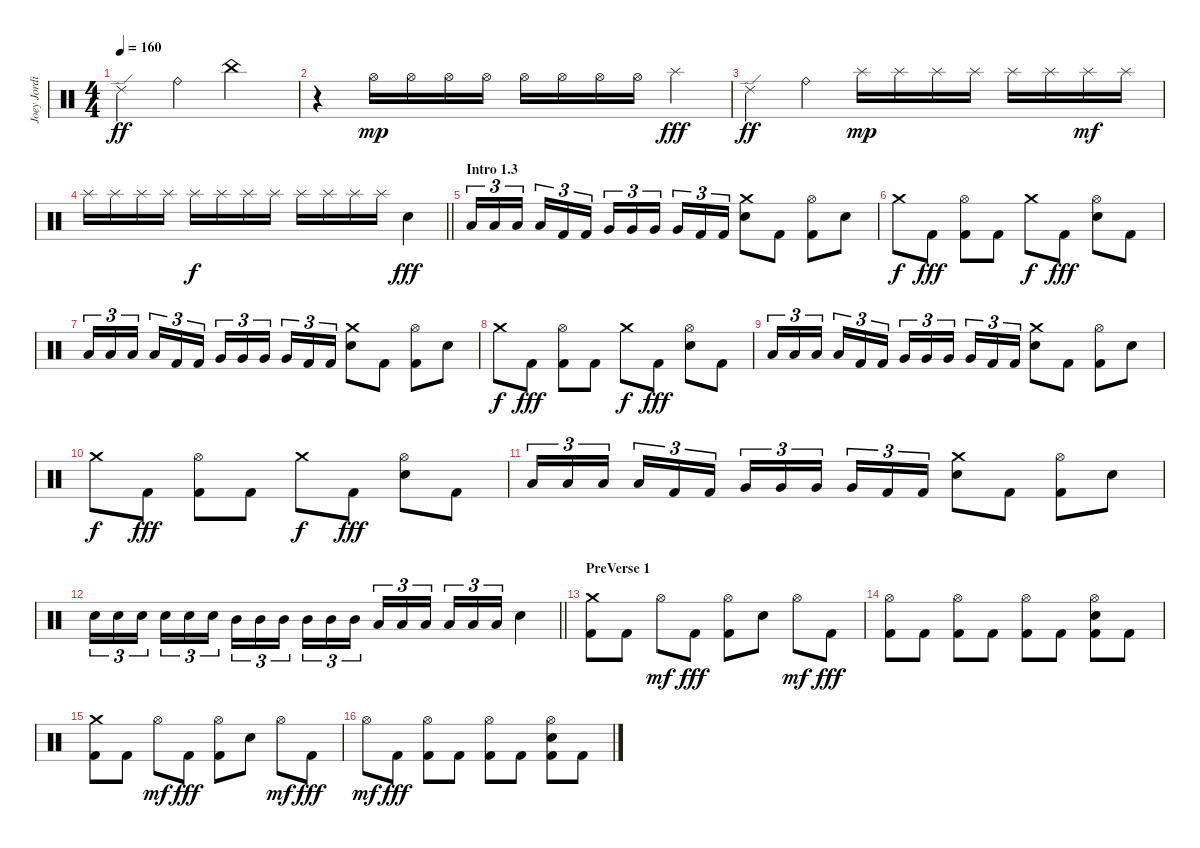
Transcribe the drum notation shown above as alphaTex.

\track ("Joey Jordison" "Joey Jordi") {instrument percussion}
\staff {score}
\articulation defaults
\ts (4 4)
\tempo 160
\clef neutral
\ks c "Ride (edge) 2".4{dy ff} "Ride (bell)".4 "China (hit)".2
|
r.4 "Hi-Hat (open)".16{dy mp} "Hi-Hat (open)".16 "Hi-Hat (open)".16 "Hi-Hat (open)".16 "Hi-Hat (open)".16 "Hi-Hat (open)".16 "Hi-Hat (open)".16 "Hi-Hat (open)".16 "Splash (hit)".4{dy fff} |
"Ride (edge) 2".4{dy ff} "Ride (bell)".4 "Splash (hit)".16{dy mp} "Splash (hit)".16 "Splash (hit)".16 "Splash (hit)".16 "Splash (hit)".16 "Splash (hit)".16 "Splash (hit)".16{dy mf} "Splash (hit)".16 |
\barLineRight lightlight "Splash (hit)".16 "Splash (hit)".16 "Splash (hit)".16 "Splash (hit)".16 "Splash (hit)".16{dy f} "Splash (hit)".16 "Splash (hit)".16 "Splash (hit)".16 "Splash (hit)".16 "Splash (hit)".16 "Splash (hit)".16 "Splash (hit)".16 "Electric Snare (hit)".4{dy fff}
|
\section ("" "Intro 1.3")
"Low Tom (hit)".16{tu (3 2)} "Low Tom (hit)".16{tu (3 2)} "Low Tom (hit)".16{tu (3 2) beam splitsecondary} "Low Tom (hit)".16{tu (3 2)} "Kick (hit) 2".16{tu (3 2)} "Kick (hit) 2".16{tu (3 2)} "Very Low Tom (hit)".16{tu (3 2)} "Very Low Tom (hit)".16{tu (3 2)} "Very Low Tom (hit)".16{tu (3 2) beam splitsecondary} "Very Low Tom (hit)".16{tu (3 2)} "Kick (hit) 2".16{tu (3 2)} "Kick (hit) 2".16{tu (3 2)} ("Crash medium (hit)" "Electric Snare (hit)").8 "Kick (hit) 2".8 ("Hi-Hat (open)" "Kick (hit) 2").8 "Electric Snare (hit)".8 |
"Crash medium (hit)".8{dy f} "Kick (hit) 2".8{dy fff} ("Hi-Hat (open)" "Kick (hit) 2").8 "Kick (hit) 2".8 "Crash medium (hit)".8{dy f} "Kick (hit) 2".8{dy fff} ("Hi-Hat (open)" "Electric Snare (hit)").8 "Kick (hit) 2".8 |
"Low Tom (hit)".16{tu (3 2)} "Low Tom (hit)".16{tu (3 2)} "Low Tom (hit)".16{tu (3 2) beam splitsecondary} "Low Tom (hit)".16{tu (3 2)} "Kick (hit) 2".16{tu (3 2)} "Kick (hit) 2".16{tu (3 2)} "Very Low Tom (hit)".16{tu (3 2)} "Very Low Tom (hit)".16{tu (3 2)} "Very Low Tom (hit)".16{tu (3 2) beam splitsecondary} "Very Low Tom (hit)".16{tu (3 2)} "Kick (hit) 2".16{tu (3 2)} "Kick (hit) 2".16{tu (3 2)} ("Crash medium (hit)" "Electric Snare (hit)").8 "Kick (hit) 2".8 ("Hi-Hat (open)" "Kick (hit) 2").8 "Electric Snare (hit)".8 |
"Crash medium (hit)".8{dy f} "Kick (hit) 2".8{dy fff} ("Hi-Hat (open)" "Kick (hit) 2").8 "Kick (hit) 2".8 "Crash medium (hit)".8{dy f} "Kick (hit) 2".8{dy fff} ("Hi-Hat (open)" "Electric Snare (hit)").8 "Kick (hit) 2".8 |
"Low Tom (hit)".16{tu (3 2)} "Low Tom (hit)".16{tu (3 2)} "Low Tom (hit)".16{tu (3 2) beam splitsecondary} "Low Tom (hit)".16{tu (3 2)} "Kick (hit) 2".16{tu (3 2)} "Kick (hit) 2".16{tu (3 2)} "Very Low Tom (hit)".16{tu (3 2)} "Very Low Tom (hit)".16{tu (3 2)} "Very Low Tom (hit)".16{tu (3 2) beam splitsecondary} "Very Low Tom (hit)".16{tu (3 2)} "Kick (hit) 2".16{tu (3 2)} "Kick (hit) 2".16{tu (3 2)} ("Crash medium (hit)" "Electric Snare (hit)").8 "Kick (hit) 2".8 ("Hi-Hat (open)" "Kick (hit) 2").8 "Electric Snare (hit)".8 |
"Crash medium (hit)".8{dy f} "Kick (hit) 2".8{dy fff} ("Hi-Hat (open)" "Kick (hit) 2").8 "Kick (hit) 2".8 "Crash medium (hit)".8{dy f} "Kick (hit) 2".8{dy fff} ("Hi-Hat (open)" "Electric Snare (hit)").8 "Kick (hit) 2".8 |
"Low Tom (hit)".16{tu (3 2)} "Low Tom (hit)".16{tu (3 2)} "Low Tom (hit)".16{tu (3 2) beam splitsecondary} "Low Tom (hit)".16{tu (3 2)} "Kick (hit) 2".16{tu (3 2)} "Kick (hit) 2".16{tu (3 2)} "Very Low Tom (hit)".16{tu (3 2)} "Very Low Tom (hit)".16{tu (3 2)} "Very Low Tom (hit)".16{tu (3 2) beam splitsecondary} "Very Low Tom (hit)".16{tu (3 2)} "Kick (hit) 2".16{tu (3 2)} "Kick (hit) 2".16{tu (3 2)} ("Crash medium (hit)" "Electric Snare (hit)").8 "Kick (hit) 2".8 ("Hi-Hat (open)" "Kick (hit) 2").8 "Electric Snare (hit)".8 |
\barLineRight lightlight "Electric Snare (hit)".16{tu (3 2)} "Electric Snare (hit)".16{tu (3 2)} "Electric Snare (hit)".16{tu (3 2) beam splitsecondary} "Electric Snare (hit)".16{tu (3 2)} "Electric Snare (hit)".16{tu (3 2)} "Electric Snare (hit)".16{tu (3 2)} "Mid Tom (hit)".16{tu (3 2)} "Mid Tom (hit)".16{tu (3 2)} "Mid Tom (hit)".16{tu (3 2) beam splitsecondary} "Mid Tom (hit)".16{tu (3 2)} "Mid Tom (hit)".16{tu (3 2)} "Mid Tom (hit)".16{tu (3 2)} "Low Tom (hit)".16{tu (3 2)} "Low Tom (hit)".16{tu (3 2)} "Low Tom (hit)".16{tu (3 2) beam splitsecondary} "Low Tom (hit)".16{tu (3 2)} "Low Tom (hit)".16{tu (3 2)} "Low Tom (hit)".16{tu (3 2)} "Electric Snare (hit)".4
|
\section ("" "PreVerse 1")
("Crash medium (hit)" "Kick (hit) 2").8 "Kick (hit) 2".8 "Hi-Hat (open)".8{dy mf} "Kick (hit) 2".8{dy fff} ("Hi-Hat (open)" "Kick (hit) 2").8 "Electric Snare (hit)".8 "Hi-Hat (open)".8{dy mf} "Kick (hit) 2".8{dy fff} |
("Hi-Hat (open)" "Kick (hit) 2").8 "Kick (hit) 2".8 ("Hi-Hat (open)" "Kick (hit) 2").8 "Kick (hit) 2".8 ("Hi-Hat (open)" "Kick (hit) 2").8 "Kick (hit) 2".8 ("Hi-Hat (open)" "Electric Snare (hit)" "Kick (hit) 2").8 "Kick (hit) 2".8 |
("Crash medium (hit)" "Kick (hit) 2").8 "Kick (hit) 2".8 "Hi-Hat (open)".8{dy mf} "Kick (hit) 2".8{dy fff} ("Hi-Hat (open)" "Kick (hit) 2").8 "Electric Snare (hit)".8 "Hi-Hat (open)".8{dy mf} "Kick (hit) 2".8{dy fff} |
"Hi-Hat (open)".8{dy mf} "Kick (hit) 2".8{dy fff} ("Hi-Hat (open)" "Kick (hit) 2").8 "Kick (hit) 2".8 ("Hi-Hat (open)" "Kick (hit) 2").8 "Kick (hit) 2".8 ("Hi-Hat (open)" "Electric Snare (hit)" "Kick (hit) 2").8 "Kick (hit) 2".8
